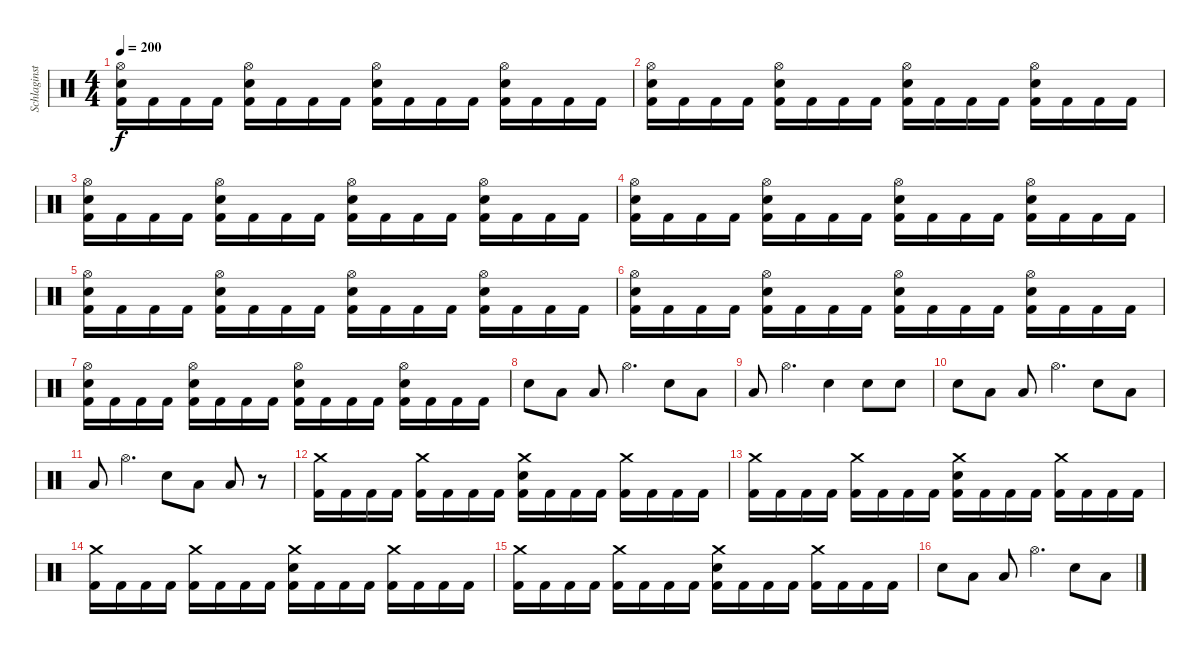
\track ("Schlaginstrumente - Auswahl" "Schlaginst") {instrument percussion}
\staff {score}
\articulation defaults
\ts (4 4)
\tempo 200
\clef neutral
\ks c
("Hi-Hat (open)" "Snare (hit) 2" "Kick (hit) 2").16{dy f} "Kick (hit) 2".16 "Kick (hit) 2".16 "Kick (hit) 2".16 ("Hi-Hat (open)" "Snare (hit) 2" "Kick (hit) 2").16 "Kick (hit) 2".16 "Kick (hit) 2".16 "Kick (hit) 2".16 ("Hi-Hat (open)" "Snare (hit) 2" "Kick (hit) 2").16 "Kick (hit) 2".16 "Kick (hit) 2".16 "Kick (hit) 2".16 ("Hi-Hat (open)" "Snare (hit) 2" "Kick (hit) 2").16 "Kick (hit) 2".16 "Kick (hit) 2".16 "Kick (hit) 2".16 |
("Hi-Hat (open)" "Snare (hit) 2" "Kick (hit) 2").16 "Kick (hit) 2".16 "Kick (hit) 2".16 "Kick (hit) 2".16 ("Hi-Hat (open)" "Snare (hit) 2" "Kick (hit) 2").16 "Kick (hit) 2".16 "Kick (hit) 2".16 "Kick (hit) 2".16 ("Hi-Hat (open)" "Snare (hit) 2" "Kick (hit) 2").16 "Kick (hit) 2".16 "Kick (hit) 2".16 "Kick (hit) 2".16 ("Hi-Hat (open)" "Snare (hit) 2" "Kick (hit) 2").16 "Kick (hit) 2".16 "Kick (hit) 2".16 "Kick (hit) 2".16 |
("Hi-Hat (open)" "Snare (hit) 2" "Kick (hit) 2").16 "Kick (hit) 2".16 "Kick (hit) 2".16 "Kick (hit) 2".16 ("Hi-Hat (open)" "Snare (hit) 2" "Kick (hit) 2").16 "Kick (hit) 2".16 "Kick (hit) 2".16 "Kick (hit) 2".16 ("Hi-Hat (open)" "Snare (hit) 2" "Kick (hit) 2").16 "Kick (hit) 2".16 "Kick (hit) 2".16 "Kick (hit) 2".16 ("Hi-Hat (open)" "Snare (hit) 2" "Kick (hit) 2").16 "Kick (hit) 2".16 "Kick (hit) 2".16 "Kick (hit) 2".16 |
("Hi-Hat (open)" "Snare (hit) 2" "Kick (hit) 2").16 "Kick (hit) 2".16 "Kick (hit) 2".16 "Kick (hit) 2".16 ("Hi-Hat (open)" "Snare (hit) 2" "Kick (hit) 2").16 "Kick (hit) 2".16 "Kick (hit) 2".16 "Kick (hit) 2".16 ("Hi-Hat (open)" "Snare (hit) 2" "Kick (hit) 2").16 "Kick (hit) 2".16 "Kick (hit) 2".16 "Kick (hit) 2".16 ("Hi-Hat (open)" "Snare (hit) 2" "Kick (hit) 2").16 "Kick (hit) 2".16 "Kick (hit) 2".16 "Kick (hit) 2".16 |
("Hi-Hat (open)" "Snare (hit) 2" "Kick (hit) 2").16 "Kick (hit) 2".16 "Kick (hit) 2".16 "Kick (hit) 2".16 ("Hi-Hat (open)" "Snare (hit) 2" "Kick (hit) 2").16 "Kick (hit) 2".16 "Kick (hit) 2".16 "Kick (hit) 2".16 ("Hi-Hat (open)" "Snare (hit) 2" "Kick (hit) 2").16 "Kick (hit) 2".16 "Kick (hit) 2".16 "Kick (hit) 2".16 ("Hi-Hat (open)" "Snare (hit) 2" "Kick (hit) 2").16 "Kick (hit) 2".16 "Kick (hit) 2".16 "Kick (hit) 2".16 |
("Hi-Hat (open)" "Snare (hit) 2" "Kick (hit) 2").16 "Kick (hit) 2".16 "Kick (hit) 2".16 "Kick (hit) 2".16 ("Hi-Hat (open)" "Snare (hit) 2" "Kick (hit) 2").16 "Kick (hit) 2".16 "Kick (hit) 2".16 "Kick (hit) 2".16 ("Hi-Hat (open)" "Snare (hit) 2" "Kick (hit) 2").16 "Kick (hit) 2".16 "Kick (hit) 2".16 "Kick (hit) 2".16 ("Hi-Hat (open)" "Snare (hit) 2" "Kick (hit) 2").16 "Kick (hit) 2".16 "Kick (hit) 2".16 "Kick (hit) 2".16 |
("Hi-Hat (open)" "Snare (hit) 2" "Kick (hit) 2").16 "Kick (hit) 2".16 "Kick (hit) 2".16 "Kick (hit) 2".16 ("Hi-Hat (open)" "Snare (hit) 2" "Kick (hit) 2").16 "Kick (hit) 2".16 "Kick (hit) 2".16 "Kick (hit) 2".16 ("Hi-Hat (open)" "Snare (hit) 2" "Kick (hit) 2").16 "Kick (hit) 2".16 "Kick (hit) 2".16 "Kick (hit) 2".16 ("Hi-Hat (open)" "Snare (hit) 2" "Kick (hit) 2").16 "Kick (hit) 2".16 "Kick (hit) 2".16 "Kick (hit) 2".16 |
"Snare (hit) 2".8 "Low Tom (hit)".8 "Low Tom (hit)".8 "Hi-Hat (open)".4{d} "Snare (hit) 2".8 "Low Tom (hit)".8 |
"Low Tom (hit)".8 "Hi-Hat (open)".4{d} "Snare (hit) 2".4 "Snare (hit) 2".8 "Snare (hit) 2".8 |
"Snare (hit) 2".8 "Low Tom (hit)".8 "Low Tom (hit)".8 "Hi-Hat (open)".4{d} "Snare (hit) 2".8 "Low Tom (hit)".8 |
"Low Tom (hit)".8 "Hi-Hat (open)".4{d} "Snare (hit) 2".8 "Low Tom (hit)".8 "Low Tom (hit)".8 r.8 |
("Crash medium (hit)" "Kick (hit) 2").16 "Kick (hit) 2".16 "Kick (hit) 2".16 "Kick (hit) 2".16 ("Crash medium (hit)" "Kick (hit) 2").16 "Kick (hit) 2".16 "Kick (hit) 2".16 "Kick (hit) 2".16 ("Crash medium (hit)" "Snare (hit) 2" "Kick (hit) 2").16 "Kick (hit) 2".16 "Kick (hit) 2".16 "Kick (hit) 2".16 ("Crash medium (hit)" "Kick (hit) 2").16 "Kick (hit) 2".16 "Kick (hit) 2".16 "Kick (hit) 2".16 |
("Crash medium (hit)" "Kick (hit) 2").16 "Kick (hit) 2".16 "Kick (hit) 2".16 "Kick (hit) 2".16 ("Crash medium (hit)" "Kick (hit) 2").16 "Kick (hit) 2".16 "Kick (hit) 2".16 "Kick (hit) 2".16 ("Crash medium (hit)" "Snare (hit) 2" "Kick (hit) 2").16 "Kick (hit) 2".16 "Kick (hit) 2".16 "Kick (hit) 2".16 ("Crash medium (hit)" "Kick (hit) 2").16 "Kick (hit) 2".16 "Kick (hit) 2".16 "Kick (hit) 2".16 |
("Crash medium (hit)" "Kick (hit) 2").16 "Kick (hit) 2".16 "Kick (hit) 2".16 "Kick (hit) 2".16 ("Crash medium (hit)" "Kick (hit) 2").16 "Kick (hit) 2".16 "Kick (hit) 2".16 "Kick (hit) 2".16 ("Crash medium (hit)" "Snare (hit) 2" "Kick (hit) 2").16 "Kick (hit) 2".16 "Kick (hit) 2".16 "Kick (hit) 2".16 ("Crash medium (hit)" "Kick (hit) 2").16 "Kick (hit) 2".16 "Kick (hit) 2".16 "Kick (hit) 2".16 |
("Crash medium (hit)" "Kick (hit) 2").16 "Kick (hit) 2".16 "Kick (hit) 2".16 "Kick (hit) 2".16 ("Crash medium (hit)" "Kick (hit) 2").16 "Kick (hit) 2".16 "Kick (hit) 2".16 "Kick (hit) 2".16 ("Crash medium (hit)" "Snare (hit) 2" "Kick (hit) 2").16 "Kick (hit) 2".16 "Kick (hit) 2".16 "Kick (hit) 2".16 ("Crash medium (hit)" "Kick (hit) 2").16 "Kick (hit) 2".16 "Kick (hit) 2".16 "Kick (hit) 2".16 |
"Snare (hit) 2".8 "Low Tom (hit)".8 "Low Tom (hit)".8 "Hi-Hat (open)".4{d} "Snare (hit) 2".8 "Low Tom (hit)".8
